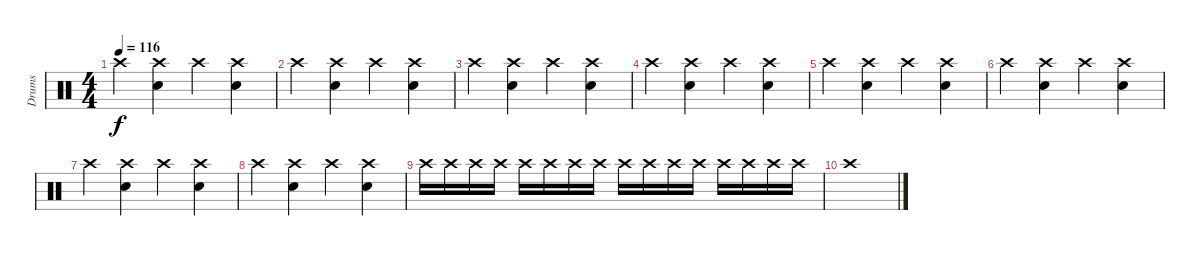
\track ("Drums" "Drums") {instrument percussion}
\staff {score}
\articulation defaults
\ts (4 4)
\tempo 116
\clef neutral
\ks c "Crash high (hit)".4{dy f}
("Crash high (hit)" "Electric Snare (hit)").4 "Crash high (hit)".4 ("Crash high (hit)" "Electric Snare (hit)").4 |
"Crash high (hit)".4 ("Crash high (hit)" "Electric Snare (hit)").4 "Crash high (hit)".4 ("Crash high (hit)" "Electric Snare (hit)").4 |
"Crash high (hit)".4 ("Crash high (hit)" "Electric Snare (hit)").4 "Crash high (hit)".4 ("Crash high (hit)" "Electric Snare (hit)").4 |
"Crash high (hit)".4 ("Crash high (hit)" "Electric Snare (hit)").4 "Crash high (hit)".4 ("Crash high (hit)" "Electric Snare (hit)").4 |
"Crash high (hit)".4 ("Crash high (hit)" "Electric Snare (hit)").4 "Crash high (hit)".4 ("Crash high (hit)" "Electric Snare (hit)").4 |
"Crash high (hit)".4 ("Crash high (hit)" "Electric Snare (hit)").4 "Crash high (hit)".4 ("Crash high (hit)" "Electric Snare (hit)").4 |
"Crash high (hit)".4 ("Crash high (hit)" "Electric Snare (hit)").4 "Crash high (hit)".4 ("Crash high (hit)" "Electric Snare (hit)").4 |
"Crash high (hit)".4 ("Crash high (hit)" "Electric Snare (hit)").4 "Crash high (hit)".4 ("Crash high (hit)" "Electric Snare (hit)").4 |
"Crash high (hit)".16 "Crash high (hit)".16 "Crash high (hit)".16 "Crash high (hit)".16 "Crash high (hit)".16 "Crash high (hit)".16 "Crash high (hit)".16 "Crash high (hit)".16 "Crash high (hit)".16 "Crash high (hit)".16 "Crash high (hit)".16 "Crash high (hit)".16 "Crash high (hit)".16 "Crash high (hit)".16 "Crash high (hit)".16 "Crash high (hit)".16 |
"Crash high (hit)".1
